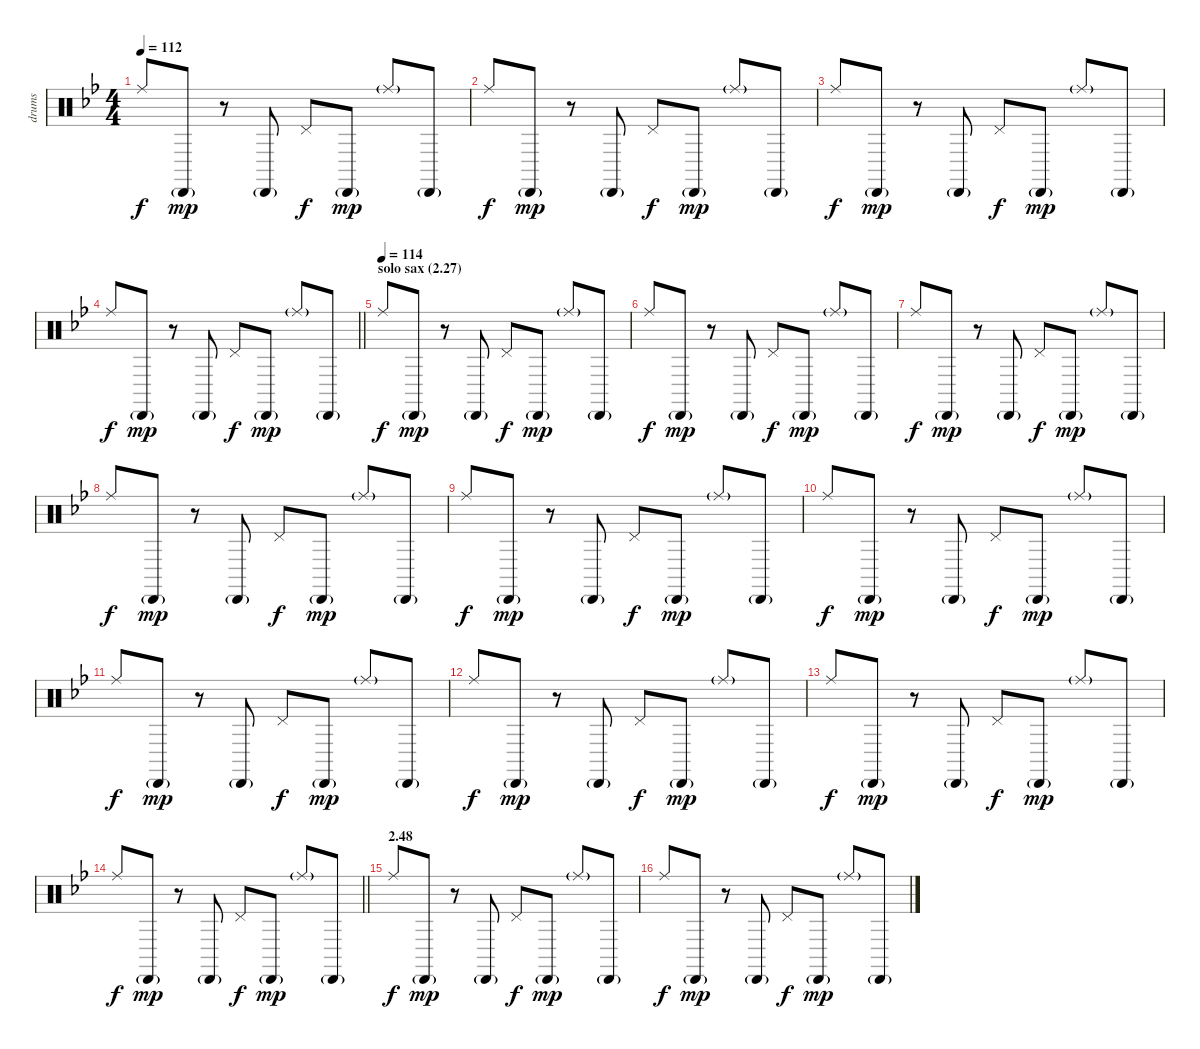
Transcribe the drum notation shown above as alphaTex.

\track ("drums" "drums") {instrument percussion}
\staff {score}
\articulation defaults
\ts (4 4)
\tempo 112
\clef neutral
\ks bb "Ride (middle)".8{dy f} "Cabasa (hit)"{g}.8{dy mp}
r.8 "Cabasa (hit)"{g}.8 "Pedal Hi-Hat (hit)".8{dy f} "Cabasa (hit)"{g}.8{dy mp} "Ride (middle)"{g}.8 "Cabasa (hit)"{g}.8 |
"Ride (middle)".8{dy f} "Cabasa (hit)"{g}.8{dy mp} r.8 "Cabasa (hit)"{g}.8 "Pedal Hi-Hat (hit)".8{dy f} "Cabasa (hit)"{g}.8{dy mp} "Ride (middle)"{g}.8 "Cabasa (hit)"{g}.8 |
"Ride (middle)".8{dy f} "Cabasa (hit)"{g}.8{dy mp} r.8 "Cabasa (hit)"{g}.8 "Pedal Hi-Hat (hit)".8{dy f} "Cabasa (hit)"{g}.8{dy mp} "Ride (middle)"{g}.8 "Cabasa (hit)"{g}.8 |
\barLineRight lightlight "Ride (middle)".8{dy f} "Cabasa (hit)"{g}.8{dy mp}
r.8 "Cabasa (hit)"{g}.8 "Pedal Hi-Hat (hit)".8{dy f} "Cabasa (hit)"{g}.8{dy mp} "Ride (middle)"{g}.8 "Cabasa (hit)"{g}.8 |
\section ("" "solo sax (2.27)")
\tempo (114)
"Ride (middle)".8{dy f} "Cabasa (hit)"{g}.8{dy mp} r.8 "Cabasa (hit)"{g}.8 "Pedal Hi-Hat (hit)".8{dy f} "Cabasa (hit)"{g}.8{dy mp} "Ride (middle)"{g}.8 "Cabasa (hit)"{g}.8 |
"Ride (middle)".8{dy f} "Cabasa (hit)"{g}.8{dy mp} r.8 "Cabasa (hit)"{g}.8 "Pedal Hi-Hat (hit)".8{dy f} "Cabasa (hit)"{g}.8{dy mp} "Ride (middle)"{g}.8 "Cabasa (hit)"{g}.8 |
"Ride (middle)".8{dy f} "Cabasa (hit)"{g}.8{dy mp} r.8 "Cabasa (hit)"{g}.8 "Pedal Hi-Hat (hit)".8{dy f} "Cabasa (hit)"{g}.8{dy mp} "Ride (middle)"{g}.8 "Cabasa (hit)"{g}.8 |
"Ride (middle)".8{dy f} "Cabasa (hit)"{g}.8{dy mp} r.8 "Cabasa (hit)"{g}.8 "Pedal Hi-Hat (hit)".8{dy f} "Cabasa (hit)"{g}.8{dy mp} "Ride (middle)"{g}.8 "Cabasa (hit)"{g}.8 |
"Ride (middle)".8{dy f} "Cabasa (hit)"{g}.8{dy mp} r.8 "Cabasa (hit)"{g}.8 "Pedal Hi-Hat (hit)".8{dy f} "Cabasa (hit)"{g}.8{dy mp} "Ride (middle)"{g}.8 "Cabasa (hit)"{g}.8 |
"Ride (middle)".8{dy f} "Cabasa (hit)"{g}.8{dy mp} r.8 "Cabasa (hit)"{g}.8 "Pedal Hi-Hat (hit)".8{dy f} "Cabasa (hit)"{g}.8{dy mp} "Ride (middle)"{g}.8 "Cabasa (hit)"{g}.8 |
"Ride (middle)".8{dy f} "Cabasa (hit)"{g}.8{dy mp} r.8 "Cabasa (hit)"{g}.8 "Pedal Hi-Hat (hit)".8{dy f} "Cabasa (hit)"{g}.8{dy mp} "Ride (middle)"{g}.8 "Cabasa (hit)"{g}.8 |
"Ride (middle)".8{dy f} "Cabasa (hit)"{g}.8{dy mp} r.8 "Cabasa (hit)"{g}.8 "Pedal Hi-Hat (hit)".8{dy f} "Cabasa (hit)"{g}.8{dy mp} "Ride (middle)"{g}.8 "Cabasa (hit)"{g}.8 |
"Ride (middle)".8{dy f} "Cabasa (hit)"{g}.8{dy mp} r.8 "Cabasa (hit)"{g}.8 "Pedal Hi-Hat (hit)".8{dy f} "Cabasa (hit)"{g}.8{dy mp} "Ride (middle)"{g}.8 "Cabasa (hit)"{g}.8 |
\barLineRight lightlight "Ride (middle)".8{dy f} "Cabasa (hit)"{g}.8{dy mp}
r.8 "Cabasa (hit)"{g}.8 "Pedal Hi-Hat (hit)".8{dy f} "Cabasa (hit)"{g}.8{dy mp} "Ride (middle)"{g}.8 "Cabasa (hit)"{g}.8 |
\section ("" "2.48")
"Ride (middle)".8{dy f} "Cabasa (hit)"{g}.8{dy mp} r.8 "Cabasa (hit)"{g}.8 "Pedal Hi-Hat (hit)".8{dy f} "Cabasa (hit)"{g}.8{dy mp} "Ride (middle)"{g}.8 "Cabasa (hit)"{g}.8 |
"Ride (middle)".8{dy f} "Cabasa (hit)"{g}.8{dy mp} r.8 "Cabasa (hit)"{g}.8 "Pedal Hi-Hat (hit)".8{dy f} "Cabasa (hit)"{g}.8{dy mp} "Ride (middle)"{g}.8 "Cabasa (hit)"{g}.8
